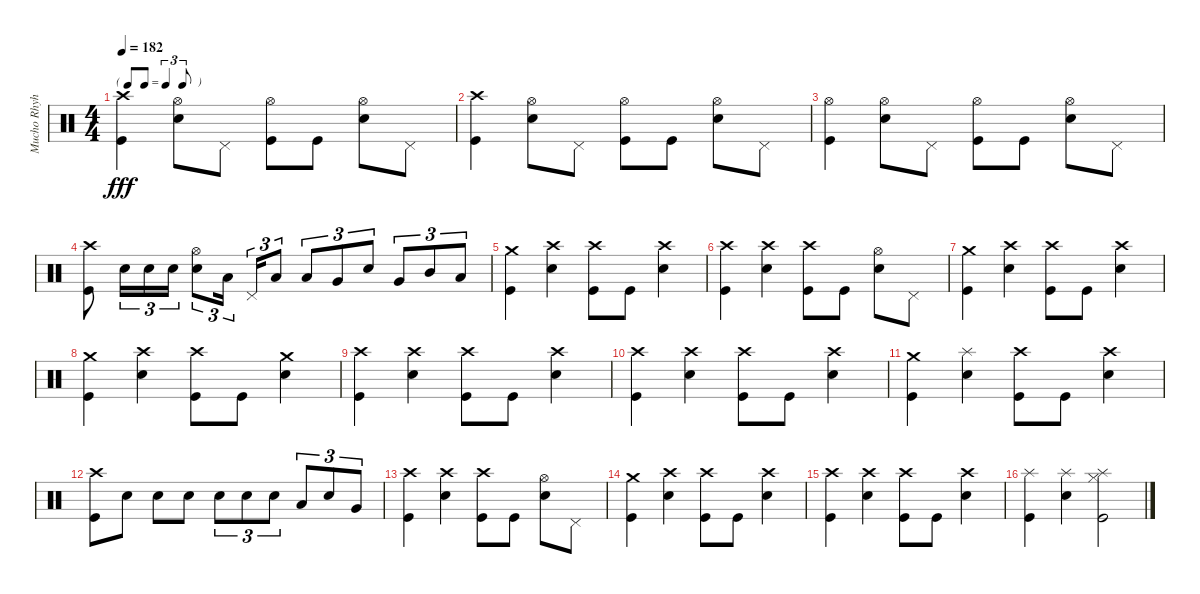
\track ("Mucho Rhyhtm" "Mucho Rhyh") {instrument percussion}
\staff {score}
\articulation defaults
\ts (4 4)
\tf triplet8th
\tempo 182
\clef neutral
\ks c
("Crash high (hit)" "Kick (hit)").4{dy fff} ("Hi-Hat (open)" "Snare (hit) 2").8 "Pedal Hi-Hat (hit)".8 ("Hi-Hat (open)" "Kick (hit)").8 "Kick (hit)".8 ("Hi-Hat (open)" "Snare (hit) 2").8 "Pedal Hi-Hat (hit)".8 |
("Crash high (hit)" "Kick (hit)").4 ("Hi-Hat (open)" "Snare (hit) 2").8 "Pedal Hi-Hat (hit)".8 ("Hi-Hat (open)" "Kick (hit)").8 "Kick (hit)".8 ("Hi-Hat (open)" "Snare (hit) 2").8 "Pedal Hi-Hat (hit)".8 |
("Hi-Hat (open)" "Kick (hit)").4 ("Hi-Hat (open)" "Snare (hit) 2").8 "Pedal Hi-Hat (hit)".8 ("Hi-Hat (open)" "Kick (hit)").8 "Kick (hit)".8 ("Hi-Hat (open)" "Snare (hit) 2").8 "Pedal Hi-Hat (hit)".8 |
("Crash high (hit)" "Kick (hit)").8 "Snare (hit) 2".16{tu (3 2)} "Snare (hit) 2".16{tu (3 2)} "Snare (hit) 2".16{tu (3 2)} ("Hi-Hat (open)" "Snare (hit) 2").8{tu (3 2)} "Low Tom (hit)".16{tu (3 2)} "Pedal Hi-Hat (hit)".16{tu (3 2)} "Low Tom (hit)".8{tu (3 2)} "Low Tom (hit)".8{tu (3 2)} "Very Low Tom (hit)".8{tu (3 2)} "Snare (hit) 2".8{tu (3 2)} "Very Low Tom (hit)".8{tu (3 2)} "Mid Tom (hit)".8{tu (3 2)} "Low Floor Tom (hit)".8{tu (3 2)} |
("Crash medium (hit)" "Kick (hit)").4 ("Crash high (hit)" "Snare (hit) 2").4 ("Crash high (hit)" "Kick (hit)").8 "Kick (hit)".8 ("Crash high (hit)" "Snare (hit) 2").4 |
("Crash high (hit)" "Kick (hit)").4 ("Crash high (hit)" "Snare (hit) 2").4 ("Crash high (hit)" "Kick (hit)").8 "Kick (hit)".8 ("Hi-Hat (open)" "Snare (hit) 2").8 "Pedal Hi-Hat (hit)".8 |
("Crash medium (hit)" "Kick (hit)").4 ("Crash high (hit)" "Snare (hit) 2").4 ("Crash high (hit)" "Kick (hit)").8 "Kick (hit)".8 ("Crash high (hit)" "Snare (hit) 2").4 |
("Crash medium (hit)" "Kick (hit)").4 ("Crash high (hit)" "Snare (hit) 2").4 ("Crash high (hit)" "Kick (hit)").8 "Kick (hit)".8 ("Crash medium (hit)" "Snare (hit) 2").4 |
("Crash high (hit)" "Kick (hit)").4 ("Crash high (hit)" "Snare (hit) 2").4 ("Crash high (hit)" "Kick (hit)").8 "Kick (hit)".8 ("Crash high (hit)" "Snare (hit) 2").4 |
("Crash high (hit)" "Kick (hit)").4 ("Crash high (hit)" "Snare (hit) 2").4 ("Crash high (hit)" "Kick (hit)").8 "Kick (hit)".8 ("Crash high (hit)" "Snare (hit) 2").4 |
("Crash medium (hit)" "Kick (hit)").4 ("Splash (hit)" "Snare (hit) 2").4 ("Crash high (hit)" "Kick (hit)").8 "Kick (hit)".8 ("Crash high (hit)" "Snare (hit) 2").4 |
("Crash high (hit)" "Kick (hit)").8 "Snare (hit) 2".8 "Snare (hit) 2".8 "Snare (hit) 2".8 "Snare (hit) 2".8{tu (3 2)} "Snare (hit) 2".8{tu (3 2)} "Snare (hit) 2".8{tu (3 2)} "Low Tom (hit)".8{tu (3 2)} "Snare (hit) 2".8{tu (3 2)} "Very Low Tom (hit)".8{tu (3 2)} |
("Crash high (hit)" "Kick (hit)").4 ("Crash high (hit)" "Snare (hit) 2").4 ("Crash high (hit)" "Kick (hit)").8 "Kick (hit)".8 ("Hi-Hat (open)" "Snare (hit) 2").8 "Pedal Hi-Hat (hit)".8 |
("Crash medium (hit)" "Kick (hit)").4 ("Crash high (hit)" "Snare (hit) 2").4 ("Crash high (hit)" "Kick (hit)").8 "Kick (hit)".8 ("Crash high (hit)" "Snare (hit) 2").4 |
("Crash high (hit)" "Kick (hit)").4 ("Crash high (hit)" "Snare (hit) 2").4 ("Crash high (hit)" "Kick (hit)").8 "Kick (hit)".8 ("Crash high (hit)" "Snare (hit) 2").4 |
("Splash (hit)" "Kick (hit)").4 ("Splash (hit)" "Snare (hit) 2").4 ("Hi-Hat (closed)" "Splash (hit)" "Kick (hit)").2
